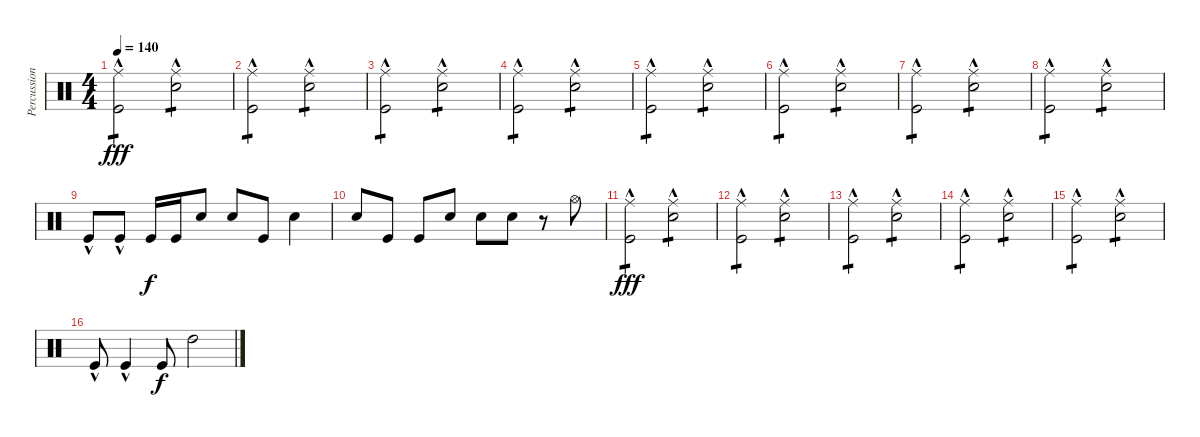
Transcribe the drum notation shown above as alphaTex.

\track ("Percussions" "Percussion") {instrument percussion}
\staff {score}
\articulation defaults
\ts (4 4)
\tempo 140
\clef neutral
\ks c
("Kick (hit)"{hac} "Ride (middle)").2{tp 1 dy fff} ("Electric Snare (hit)"{hac} "Ride (middle)").2{tp 1} |
("Kick (hit)"{hac} "Ride (middle)").2{tp 1} ("Electric Snare (hit)"{hac} "Ride (middle)").2{tp 1} |
("Kick (hit)"{hac} "Ride (middle)").2{tp 1} ("Electric Snare (hit)"{hac} "Ride (middle)").2{tp 1} |
("Kick (hit)"{hac} "Ride (middle)").2{tp 1} ("Electric Snare (hit)"{hac} "Ride (middle)").2{tp 1} |
("Kick (hit)"{hac} "Ride (middle)").2{tp 1} ("Electric Snare (hit)"{hac} "Ride (middle)").2{tp 1} |
("Kick (hit)"{hac} "Ride (middle)").2{tp 1} ("Electric Snare (hit)"{hac} "Ride (middle)").2{tp 1} |
("Kick (hit)"{hac} "Ride (middle)").2{tp 1} ("Electric Snare (hit)"{hac} "Ride (middle)").2{tp 1} |
("Kick (hit)"{hac} "Ride (middle)").2{tp 1} ("Electric Snare (hit)"{hac} "Ride (middle)").2{tp 1} |
"Kick (hit)"{hac}.8 "Kick (hit)"{hac}.8 "Kick (hit)".16{dy f} "Kick (hit)".16 "Electric Snare (hit)".8 "Electric Snare (hit)".8 "Kick (hit)".8 "Electric Snare (hit)".4 |
"Electric Snare (hit)".8 "Kick (hit)".8 "Kick (hit)".8 "Electric Snare (hit)".8 "Electric Snare (hit)".8 "Electric Snare (hit)".8 r.8 "Hi-Hat (open)".8 |
("Kick (hit)"{hac} "Ride (middle)").2{tp 1 dy fff} ("Electric Snare (hit)"{hac} "Ride (middle)").2{tp 1} |
("Kick (hit)"{hac} "Ride (middle)").2{tp 1} ("Electric Snare (hit)"{hac} "Ride (middle)").2{tp 1} |
("Kick (hit)"{hac} "Ride (middle)").2{tp 1} ("Electric Snare (hit)"{hac} "Ride (middle)").2{tp 1} |
("Kick (hit)"{hac} "Ride (middle)").2{tp 1} ("Electric Snare (hit)"{hac} "Ride (middle)").2{tp 1} |
("Kick (hit)"{hac} "Ride (middle)").2{tp 1} ("Electric Snare (hit)"{hac} "Ride (middle)").2{tp 1} |
"Kick (hit)"{hac}.8 "Kick (hit)"{hac}.4 "Kick (hit)".8{dy f} "High Tom (hit)".2
